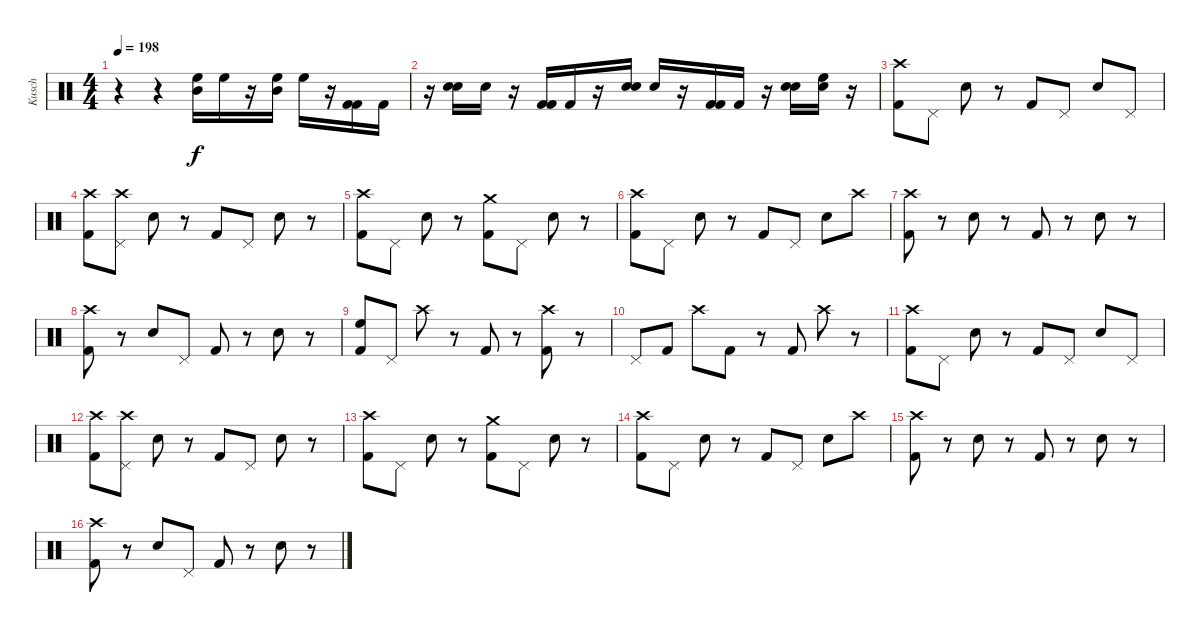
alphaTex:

\track ("Kusch" "Kusch") {instrument percussion}
\staff {score}
\articulation defaults
\ts (4 4)
\tempo 198
\clef neutral
\ks c
r.4{dy f} r.4 ("High Floor Tom (hit)" "Mid Tom (hit)").16 "High Floor Tom (hit)".16 r.16 ("High Floor Tom (hit)" "Mid Tom (hit)").16 "High Floor Tom (hit)".16 r.16 ("Kick (hit) 2" "Kick (hit) 2").16 "Kick (hit) 2".16 |
r.16 ("Snare (hit) 2" "Snare (hit) 2").16 "Snare (hit) 2".16 r.16 ("Kick (hit) 2" "Kick (hit) 2").16 "Kick (hit) 2".16 r.16 ("Snare (hit) 2" "Snare (hit) 2").16 "Snare (hit) 2".16 r.16 ("Kick (hit) 2" "Kick (hit) 2").16 "Kick (hit) 2".16 r.16 ("Snare (hit) 2" "Snare (hit) 2").16 ("Snare (hit) 2" "High Floor Tom (hit)").16 r.16 |
("Crash high (hit)" "Kick (hit) 2").8 "Pedal Hi-Hat (hit)".8 "Snare (hit) 2".8 r.8 "Kick (hit) 2".8 "Pedal Hi-Hat (hit)".8 "Snare (hit) 2".8 "Pedal Hi-Hat (hit)".8 |
("Crash high (hit)" "Kick (hit) 2").8 ("Crash high (hit)" "Pedal Hi-Hat (hit)").8 "Snare (hit) 2".8 r.8 "Kick (hit) 2".8 "Pedal Hi-Hat (hit)".8 "Snare (hit) 2".8 r.8 |
("Crash high (hit)" "Kick (hit) 2").8 "Pedal Hi-Hat (hit)".8 "Snare (hit) 2".8 r.8 ("Crash medium (hit)" "Kick (hit) 2").8 "Pedal Hi-Hat (hit)".8 "Snare (hit) 2".8 r.8 |
("Crash high (hit)" "Kick (hit) 2").8 "Pedal Hi-Hat (hit)".8 "Snare (hit) 2".8 r.8 "Kick (hit) 2".8 "Pedal Hi-Hat (hit)".8 "Snare (hit) 2".8 "Crash high (hit)".8 |
("Crash high (hit)" "Kick (hit) 2").8 r.8 "Snare (hit) 2".8 r.8 "Kick (hit) 2".8 r.8 "Snare (hit) 2".8 r.8 |
("Crash high (hit)" "Kick (hit) 2").8 r.8 "Snare (hit) 2".8 "Pedal Hi-Hat (hit)".8 "Kick (hit) 2".8 r.8 "Snare (hit) 2".8 r.8 |
("High Floor Tom (hit)" "Kick (hit) 2").8 "Pedal Hi-Hat (hit)".8 "Crash high (hit)".8 r.8 "Kick (hit) 2".8 r.8 ("Crash high (hit)" "Kick (hit) 2").8 r.8 |
"Pedal Hi-Hat (hit)".8 "Kick (hit) 2".8 "Crash high (hit)".8 "Kick (hit) 2".8 r.8 "Kick (hit) 2".8 "Crash high (hit)".8 r.8 |
("Crash high (hit)" "Kick (hit) 2").8 "Pedal Hi-Hat (hit)".8 "Snare (hit) 2".8 r.8 "Kick (hit) 2".8 "Pedal Hi-Hat (hit)".8 "Snare (hit) 2".8 "Pedal Hi-Hat (hit)".8 |
("Crash high (hit)" "Kick (hit) 2").8 ("Crash high (hit)" "Pedal Hi-Hat (hit)").8 "Snare (hit) 2".8 r.8 "Kick (hit) 2".8 "Pedal Hi-Hat (hit)".8 "Snare (hit) 2".8 r.8 |
("Crash high (hit)" "Kick (hit) 2").8 "Pedal Hi-Hat (hit)".8 "Snare (hit) 2".8 r.8 ("Crash medium (hit)" "Kick (hit) 2").8 "Pedal Hi-Hat (hit)".8 "Snare (hit) 2".8 r.8 |
("Crash high (hit)" "Kick (hit) 2").8 "Pedal Hi-Hat (hit)".8 "Snare (hit) 2".8 r.8 "Kick (hit) 2".8 "Pedal Hi-Hat (hit)".8 "Snare (hit) 2".8 "Crash high (hit)".8 |
("Crash high (hit)" "Kick (hit) 2").8 r.8 "Snare (hit) 2".8 r.8 "Kick (hit) 2".8 r.8 "Snare (hit) 2".8 r.8 |
("Crash high (hit)" "Kick (hit) 2").8 r.8 "Snare (hit) 2".8 "Pedal Hi-Hat (hit)".8 "Kick (hit) 2".8 r.8 "Snare (hit) 2".8 r.8
